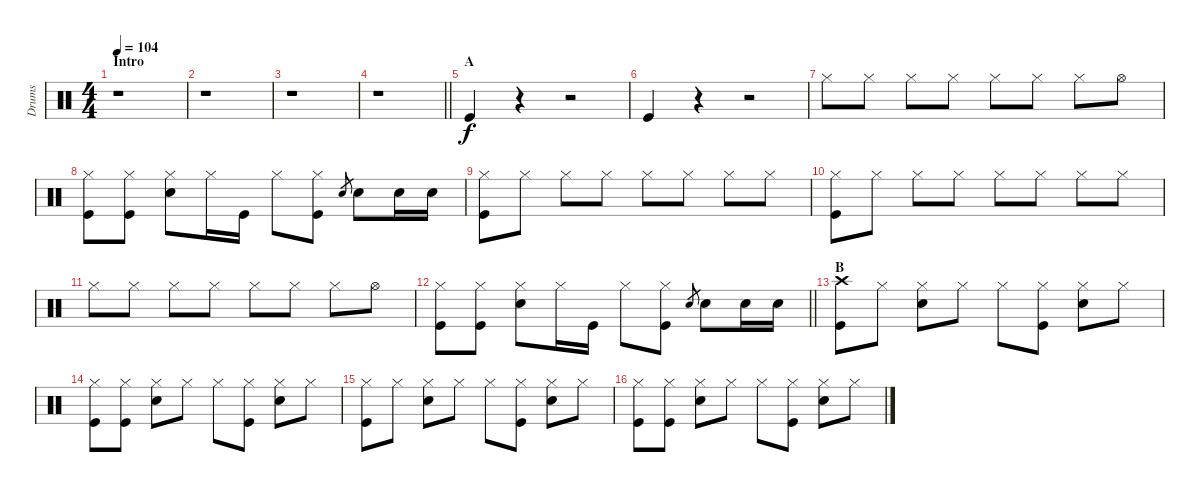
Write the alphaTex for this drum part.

\track ("Drums" "Drums") {instrument percussion}
\staff {score}
\articulation defaults
\ts (4 4)
\section ("" "Intro")
\tempo 104
\clef neutral
\ks c
r.1{dy f} |
r.1 |
r.1 |
\barLineRight lightlight
r.1 |
\section ("" "A")
"Kick (hit)".4 r.4 r.2 |
"Kick (hit)".4 r.4 r.2 |
"Hi-Hat (closed)".8 "Hi-Hat (closed)".8 "Hi-Hat (closed)".8 "Hi-Hat (closed)".8 "Hi-Hat (closed)".8 "Hi-Hat (closed)".8 "Hi-Hat (closed)".8 "Hi-Hat (open)".8 |
("Hi-Hat (closed)" "Kick (hit)").8 ("Hi-Hat (closed)" "Kick (hit)").8 ("Hi-Hat (closed)" "Electric Snare (hit)").8 "Hi-Hat (closed)".16 "Kick (hit)".16 "Hi-Hat (closed)".8 ("Hi-Hat (closed)" "Kick (hit)").8 "Electric Snare (hit)".8{gr} "Electric Snare (hit)".8 "Electric Snare (hit)".16 "Electric Snare (hit)".16 |
("Hi-Hat (closed)" "Kick (hit)").8 "Hi-Hat (closed)".8 "Hi-Hat (closed)".8 "Hi-Hat (closed)".8 "Hi-Hat (closed)".8 "Hi-Hat (closed)".8 "Hi-Hat (closed)".8 "Hi-Hat (closed)".8 |
("Hi-Hat (closed)" "Kick (hit)").8 "Hi-Hat (closed)".8 "Hi-Hat (closed)".8 "Hi-Hat (closed)".8 "Hi-Hat (closed)".8 "Hi-Hat (closed)".8 "Hi-Hat (closed)".8 "Hi-Hat (closed)".8 |
"Hi-Hat (closed)".8 "Hi-Hat (closed)".8 "Hi-Hat (closed)".8 "Hi-Hat (closed)".8 "Hi-Hat (closed)".8 "Hi-Hat (closed)".8 "Hi-Hat (closed)".8 "Hi-Hat (open)".8 |
\barLineRight lightlight
("Hi-Hat (closed)" "Kick (hit)").8 ("Hi-Hat (closed)" "Kick (hit)").8 ("Hi-Hat (closed)" "Electric Snare (hit)").8 "Hi-Hat (closed)".16 "Kick (hit)".16 "Hi-Hat (closed)".8 ("Hi-Hat (closed)" "Kick (hit)").8 "Electric Snare (hit)".8{gr} "Electric Snare (hit)".8 "Electric Snare (hit)".16 "Electric Snare (hit)".16 |
\section ("" "B")
("Crash high (hit)" "Kick (hit)").8 "Hi-Hat (closed)".8 ("Hi-Hat (closed)" "Electric Snare (hit)").8 "Hi-Hat (closed)".8 "Hi-Hat (closed)".8 ("Hi-Hat (closed)" "Kick (hit)").8 ("Hi-Hat (closed)" "Electric Snare (hit)").8 "Hi-Hat (closed)".8 |
("Hi-Hat (closed)" "Kick (hit)").8 ("Hi-Hat (closed)" "Kick (hit)").8 ("Hi-Hat (closed)" "Electric Snare (hit)").8 "Hi-Hat (closed)".8 "Hi-Hat (closed)".8 ("Hi-Hat (closed)" "Kick (hit)").8 ("Hi-Hat (closed)" "Electric Snare (hit)").8 "Hi-Hat (closed)".8 |
("Hi-Hat (closed)" "Kick (hit)").8 "Hi-Hat (closed)".8 ("Hi-Hat (closed)" "Electric Snare (hit)").8 "Hi-Hat (closed)".8 "Hi-Hat (closed)".8 ("Hi-Hat (closed)" "Kick (hit)").8 ("Hi-Hat (closed)" "Electric Snare (hit)").8 "Hi-Hat (closed)".8 |
("Hi-Hat (closed)" "Kick (hit)").8 ("Hi-Hat (closed)" "Kick (hit)").8 ("Hi-Hat (closed)" "Electric Snare (hit)").8 "Hi-Hat (closed)".8 "Hi-Hat (closed)".8 ("Hi-Hat (closed)" "Kick (hit)").8 ("Hi-Hat (closed)" "Electric Snare (hit)").8 "Hi-Hat (closed)".8
